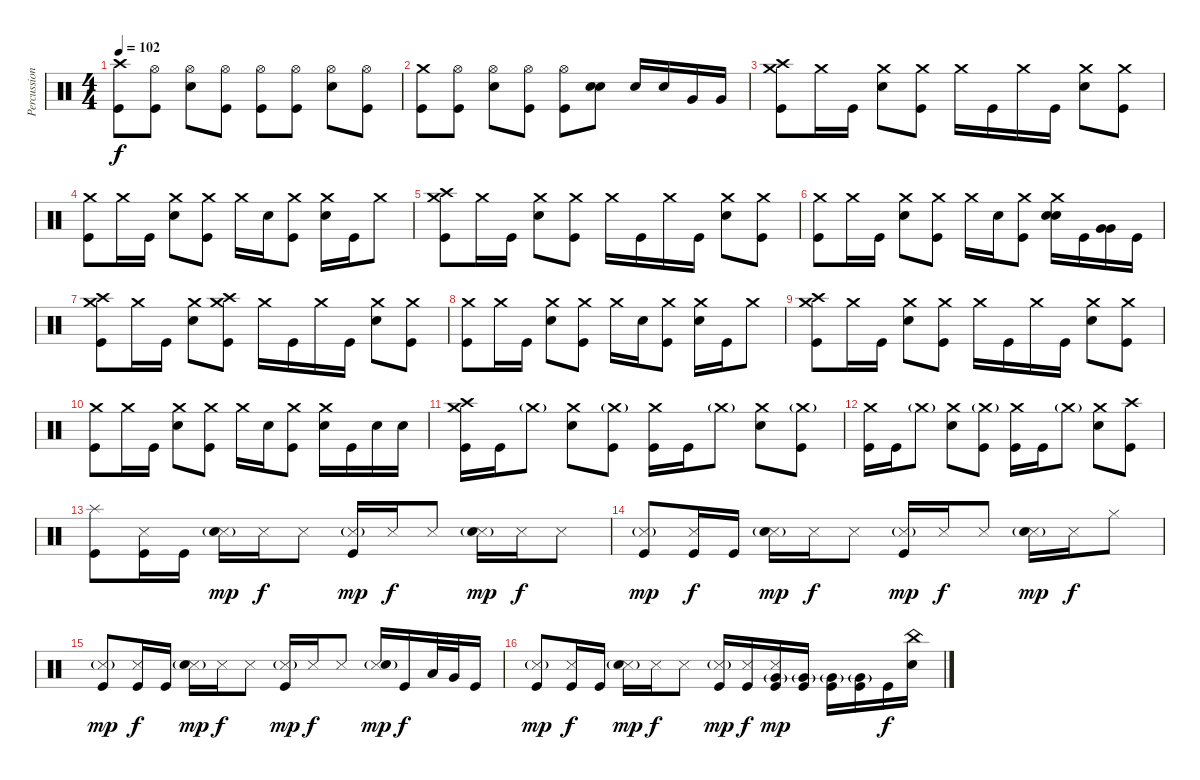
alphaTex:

\track ("Percussion" "Percussion") {instrument percussion}
\staff {score}
\articulation defaults
\ts (4 4)
\tempo 102
\clef neutral
\ks c
("Crash high (hit)" "Kick (hit)").8{dy f} ("Hi-Hat (open)" "Kick (hit)").8 ("Hi-Hat (open)" "Snare (hit) 2").8 ("Hi-Hat (open)" "Kick (hit)").8 ("Hi-Hat (open)" "Kick (hit)").8 ("Hi-Hat (open)" "Kick (hit)").8 ("Hi-Hat (open)" "Snare (hit) 2").8 ("Hi-Hat (open)" "Kick (hit)").8 |
("Crash medium (hit)" "Kick (hit)").8 ("Hi-Hat (open)" "Kick (hit)").8 ("Hi-Hat (open)" "Snare (hit) 2").8 ("Hi-Hat (open)" "Kick (hit)").8 ("Hi-Hat (open)" "Kick (hit)").8 ("Snare (hit) 2" "Snare (hit) 2").8 "Snare (hit) 2".16 "Snare (hit) 2".16 "Very Low Tom (hit)".16 "Very Low Tom (hit)".16 |
("Crash high (hit)" "Crash medium (hit)" "Kick (hit)").8 "Crash medium (hit)".16 "Kick (hit)".16 ("Crash medium (hit)" "Snare (hit) 2").8 ("Crash medium (hit)" "Kick (hit)").8 "Crash medium (hit)".16 "Kick (hit)".16 "Crash medium (hit)".16 "Kick (hit)".16 ("Crash medium (hit)" "Snare (hit) 2").8 ("Crash medium (hit)" "Kick (hit)").8 |
("Crash medium (hit)" "Kick (hit)").8 "Crash medium (hit)".16 "Kick (hit)".16 ("Crash medium (hit)" "Snare (hit) 2").8 ("Crash medium (hit)" "Kick (hit)").8 "Crash medium (hit)".16 "Snare (hit) 2".16 ("Crash medium (hit)" "Kick (hit)").8 ("Crash medium (hit)" "Snare (hit) 2").16 "Kick (hit)".16 "Crash medium (hit)".8 |
("Crash high (hit)" "Crash medium (hit)" "Kick (hit)").8 "Crash medium (hit)".16 "Kick (hit)".16 ("Crash medium (hit)" "Snare (hit) 2").8 ("Crash medium (hit)" "Kick (hit)").8 "Crash medium (hit)".16 "Kick (hit)".16 "Crash medium (hit)".16 "Kick (hit)".16 ("Crash medium (hit)" "Snare (hit) 2").8 ("Crash medium (hit)" "Kick (hit)").8 |
("Crash medium (hit)" "Kick (hit)").8 "Crash medium (hit)".16 "Kick (hit)".16 ("Crash medium (hit)" "Snare (hit) 2").8 ("Crash medium (hit)" "Kick (hit)").8 "Crash medium (hit)".16 "Snare (hit) 2".16 ("Crash medium (hit)" "Kick (hit)").8 ("Crash medium (hit)" "Snare (hit) 2" "Snare (hit) 2").16 "Kick (hit)".16 ("Very Low Tom (hit)" "Very Low Tom (hit)").16 "Kick (hit)".16 |
("Crash high (hit)" "Crash medium (hit)" "Kick (hit)").8 "Crash medium (hit)".16 "Kick (hit)".16 ("Crash medium (hit)" "Snare (hit) 2").8 ("Crash medium (hit)" "Crash high (hit)" "Kick (hit)").8 "Crash medium (hit)".16 "Kick (hit)".16 "Crash medium (hit)".16 "Kick (hit)".16 ("Crash medium (hit)" "Snare (hit) 2").8 ("Crash medium (hit)" "Kick (hit)").8 |
("Crash medium (hit)" "Kick (hit)").8 "Crash medium (hit)".16 "Kick (hit)".16 ("Crash medium (hit)" "Snare (hit) 2").8 ("Crash medium (hit)" "Kick (hit)").8 "Crash medium (hit)".16 "Snare (hit) 2".16 ("Crash medium (hit)" "Kick (hit)").8 ("Crash medium (hit)" "Snare (hit) 2").16 "Kick (hit)".16 "Crash medium (hit)".8 |
("Crash high (hit)" "Crash medium (hit)" "Kick (hit)").8 "Crash medium (hit)".16 "Kick (hit)".16 ("Crash medium (hit)" "Snare (hit) 2").8 ("Crash medium (hit)" "Kick (hit)").8 "Crash medium (hit)".16 "Kick (hit)".16 "Crash medium (hit)".16 "Kick (hit)".16 ("Crash medium (hit)" "Snare (hit) 2").8 ("Crash medium (hit)" "Kick (hit)").8 |
("Crash medium (hit)" "Kick (hit)").8 "Crash medium (hit)".16 "Kick (hit)".16 ("Crash medium (hit)" "Snare (hit) 2").8 ("Crash medium (hit)" "Kick (hit)").8 "Crash medium (hit)".16 "Snare (hit) 2".16 ("Crash medium (hit)" "Kick (hit)").8 ("Crash medium (hit)" "Snare (hit) 2").16 "Kick (hit)".16 "Snare (hit) 2".16 "Snare (hit) 2".16 |
("Crash medium (hit)" "Crash high (hit)" "Kick (hit)").16 "Kick (hit)".16 "Crash medium (hit)"{g}.8 ("Crash medium (hit)" "Snare (hit) 2").8 ("Crash medium (hit)"{g} "Kick (hit)").8 ("Crash medium (hit)" "Kick (hit)").16 "Kick (hit)".16 "Crash medium (hit)"{g}.8 ("Crash medium (hit)" "Snare (hit) 2").8 ("Crash medium (hit)"{g} "Kick (hit)").8 |
("Crash medium (hit)" "Kick (hit)").16 "Kick (hit)".16 "Crash medium (hit)"{g}.8 ("Crash medium (hit)" "Snare (hit) 2").8 ("Crash medium (hit)"{g} "Kick (hit)").8 ("Crash medium (hit)" "Kick (hit)").16 "Kick (hit)".16 "Crash medium (hit)"{g}.8 ("Crash medium (hit)" "Snare (hit) 2").8 ("Crash high (hit)" "Kick (hit)").8 |
("Splash (hit)" "Kick (hit)").8 ("Snare (side stick) 3" "Kick (hit)").16 "Kick (hit)".16 ("Snare (side stick) 3"{g} "Snare (hit) 2").16{dy mp} "Snare (side stick) 3".16{dy f} "Snare (side stick) 3".8 ("Snare (side stick) 3"{g} "Kick (hit)").16{dy mp} "Snare (side stick) 3".16{dy f} "Snare (side stick) 3".8 ("Snare (side stick) 3"{g} "Snare (hit) 2").16{dy mp} "Snare (side stick) 3".16{dy f} "Snare (side stick) 3".8 |
("Snare (side stick) 3"{g} "Kick (hit)").8{dy mp} ("Snare (side stick) 3" "Kick (hit)").16{dy f} "Kick (hit)".16 ("Snare (side stick) 3"{g} "Snare (hit) 2").16{dy mp} "Snare (side stick) 3".16{dy f} "Snare (side stick) 3".8 ("Snare (side stick) 3"{g} "Kick (hit)").16{dy mp} "Snare (side stick) 3".16{dy f} "Snare (side stick) 3".8 ("Snare (side stick) 3"{g} "Snare (hit) 2").16{dy mp} "Snare (side stick) 3".16{dy f} "Hi-Hat (closed)".8 |
("Snare (side stick) 3"{g} "Kick (hit)").8{dy mp} ("Snare (side stick) 3" "Kick (hit)").16{dy f} "Kick (hit)".16 ("Snare (side stick) 3"{g} "Snare (hit) 2").16{dy mp} "Snare (side stick) 3".16{dy f} "Snare (side stick) 3".8 ("Snare (side stick) 3"{g} "Kick (hit)").16{dy mp} "Snare (side stick) 3".16{dy f} "Snare (side stick) 3".8 ("Snare (side stick) 3"{g} "Snare (hit) 2").16{dy mp} "Kick (hit)".16{dy f} "Low Tom (hit)".32 "Very Low Tom (hit)".32 "Kick (hit)".16 |
("Snare (side stick) 3"{g} "Kick (hit)").8{dy mp} ("Snare (side stick) 3" "Kick (hit)").16{dy f} "Kick (hit)".16 ("Snare (side stick) 3"{g} "Snare (hit) 2").16{dy mp} "Snare (side stick) 3".16{dy f} "Snare (side stick) 3".8 ("Snare (side stick) 3"{g} "Kick (hit)").16{dy mp} ("Snare (side stick) 3" "Kick (hit)").16{dy f} ("Snare (side stick) 3" "Very Low Tom (hit)"{g} "Kick (hit)").16{dy mp} ("Very Low Tom (hit)"{g} "Kick (hit)").16 ("Very Low Tom (hit)"{g} "Kick (hit)").16 ("Very Low Tom (hit)"{g} "Kick (hit)").16 "Kick (hit)".16{dy f} ("China (hit)" "Snare (hit) 2").16
